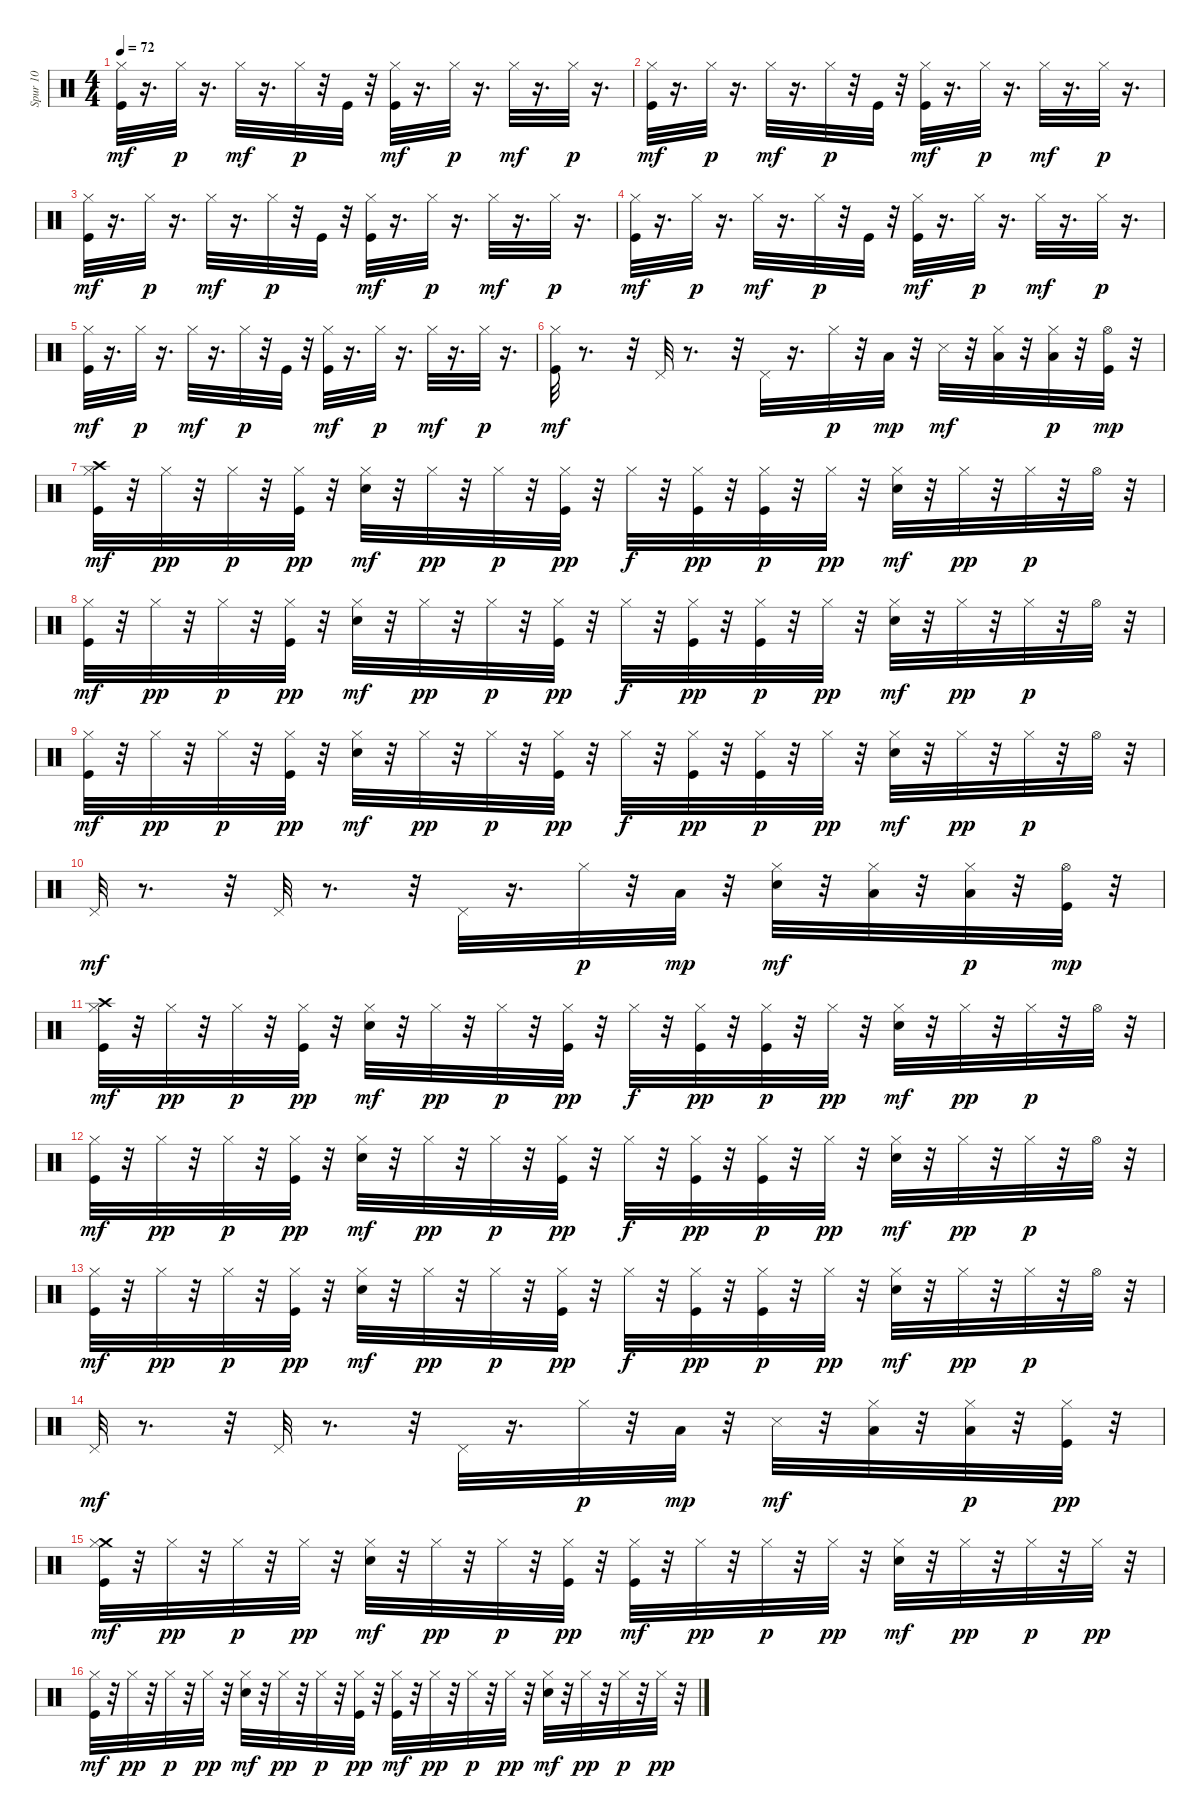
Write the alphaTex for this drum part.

\track ("Spur 10" "Spur 10") {instrument percussion}
\staff {score}
\articulation defaults
\ts (4 4)
\tempo 72
\clef neutral
\ks c
("Kick (hit)" "Hi-Hat (closed)").32{dy mf} r.16{d} "Hi-Hat (closed)".32{dy p} r.16{d} "Hi-Hat (closed)".32{dy mf} r.16{d} "Hi-Hat (closed)".32{dy p} r.32 "Kick (hit)".32 r.32 ("Kick (hit)" "Hi-Hat (closed)").32{dy mf} r.16{d} "Hi-Hat (closed)".32{dy p} r.16{d} "Hi-Hat (closed)".32{dy mf} r.16{d} "Hi-Hat (closed)".32{dy p} r.16{d} |
("Kick (hit)" "Hi-Hat (closed)").32{dy mf} r.16{d} "Hi-Hat (closed)".32{dy p} r.16{d} "Hi-Hat (closed)".32{dy mf} r.16{d} "Hi-Hat (closed)".32{dy p} r.32 "Kick (hit)".32 r.32 ("Kick (hit)" "Hi-Hat (closed)").32{dy mf} r.16{d} "Hi-Hat (closed)".32{dy p} r.16{d} "Hi-Hat (closed)".32{dy mf} r.16{d} "Hi-Hat (closed)".32{dy p} r.16{d} |
("Kick (hit)" "Hi-Hat (closed)").32{dy mf} r.16{d} "Hi-Hat (closed)".32{dy p} r.16{d} "Hi-Hat (closed)".32{dy mf} r.16{d} "Hi-Hat (closed)".32{dy p} r.32 "Kick (hit)".32 r.32 ("Kick (hit)" "Hi-Hat (closed)").32{dy mf} r.16{d} "Hi-Hat (closed)".32{dy p} r.16{d} "Hi-Hat (closed)".32{dy mf} r.16{d} "Hi-Hat (closed)".32{dy p} r.16{d} |
("Kick (hit)" "Hi-Hat (closed)").32{dy mf} r.16{d} "Hi-Hat (closed)".32{dy p} r.16{d} "Hi-Hat (closed)".32{dy mf} r.16{d} "Hi-Hat (closed)".32{dy p} r.32 "Kick (hit)".32 r.32 ("Kick (hit)" "Hi-Hat (closed)").32{dy mf} r.16{d} "Hi-Hat (closed)".32{dy p} r.16{d} "Hi-Hat (closed)".32{dy mf} r.16{d} "Hi-Hat (closed)".32{dy p} r.16{d} |
("Kick (hit)" "Hi-Hat (closed)").32{dy mf} r.16{d} "Hi-Hat (closed)".32{dy p} r.16{d} "Hi-Hat (closed)".32{dy mf} r.16{d} "Hi-Hat (closed)".32{dy p} r.32 "Kick (hit)".32 r.32 ("Kick (hit)" "Hi-Hat (closed)").32{dy mf} r.16{d} "Hi-Hat (closed)".32{dy p} r.16{d} "Hi-Hat (closed)".32{dy mf} r.16{d} "Hi-Hat (closed)".32{dy p} r.16{d} |
("Kick (hit)" "Hi-Hat (closed)").32{dy mf} r.8{d} r.32 "Pedal Hi-Hat (hit)".32 r.8{d} r.32 "Pedal Hi-Hat (hit)".32 r.16{d} "Hi-Hat (closed)".32{dy p} r.32 "Low Tom (hit)".32{dy mp} r.32 "Snare (side stick) 3".32{dy mf} r.32 ("Hi-Hat (closed)" "Low Tom (hit)").32 r.32 ("Hi-Hat (closed)" "Low Tom (hit)").32{dy p} r.32 ("Kick (hit)" "Hi-Hat (open)").32{dy mp} r.32 |
("Crash high (hit)" "Kick (hit)" "Hi-Hat (closed)").32{dy mf} r.32 "Hi-Hat (closed)".32{dy pp} r.32 "Hi-Hat (closed)".32{dy p} r.32 ("Kick (hit)" "Hi-Hat (closed)").32{dy pp} r.32 ("Snare (hit) 2" "Hi-Hat (closed)").32{dy mf} r.32 "Hi-Hat (closed)".32{dy pp} r.32 "Hi-Hat (closed)".32{dy p} r.32 ("Kick (hit)" "Hi-Hat (closed)").32{dy pp} r.32 "Hi-Hat (closed)".32{dy f} r.32 ("Kick (hit)" "Hi-Hat (closed)").32{dy pp} r.32 ("Kick (hit)" "Hi-Hat (closed)").32{dy p} r.32 "Hi-Hat (closed)".32{dy pp} r.32 ("Snare (hit) 2" "Hi-Hat (closed)").32{dy mf} r.32 "Hi-Hat (closed)".32{dy pp} r.32 "Hi-Hat (closed)".32{dy p} r.32 "Hi-Hat (open)".32 r.32 |
("Kick (hit)" "Hi-Hat (closed)").32{dy mf} r.32 "Hi-Hat (closed)".32{dy pp} r.32 "Hi-Hat (closed)".32{dy p} r.32 ("Kick (hit)" "Hi-Hat (closed)").32{dy pp} r.32 ("Snare (hit) 2" "Hi-Hat (closed)").32{dy mf} r.32 "Hi-Hat (closed)".32{dy pp} r.32 "Hi-Hat (closed)".32{dy p} r.32 ("Kick (hit)" "Hi-Hat (closed)").32{dy pp} r.32 "Hi-Hat (closed)".32{dy f} r.32 ("Kick (hit)" "Hi-Hat (closed)").32{dy pp} r.32 ("Kick (hit)" "Hi-Hat (closed)").32{dy p} r.32 "Hi-Hat (closed)".32{dy pp} r.32 ("Snare (hit) 2" "Hi-Hat (closed)").32{dy mf} r.32 "Hi-Hat (closed)".32{dy pp} r.32 "Hi-Hat (closed)".32{dy p} r.32 "Hi-Hat (open)".32 r.32 |
("Kick (hit)" "Hi-Hat (closed)").32{dy mf} r.32 "Hi-Hat (closed)".32{dy pp} r.32 "Hi-Hat (closed)".32{dy p} r.32 ("Kick (hit)" "Hi-Hat (closed)").32{dy pp} r.32 ("Snare (hit) 2" "Hi-Hat (closed)").32{dy mf} r.32 "Hi-Hat (closed)".32{dy pp} r.32 "Hi-Hat (closed)".32{dy p} r.32 ("Kick (hit)" "Hi-Hat (closed)").32{dy pp} r.32 "Hi-Hat (closed)".32{dy f} r.32 ("Kick (hit)" "Hi-Hat (closed)").32{dy pp} r.32 ("Kick (hit)" "Hi-Hat (closed)").32{dy p} r.32 "Hi-Hat (closed)".32{dy pp} r.32 ("Snare (hit) 2" "Hi-Hat (closed)").32{dy mf} r.32 "Hi-Hat (closed)".32{dy pp} r.32 "Hi-Hat (closed)".32{dy p} r.32 "Hi-Hat (open)".32 r.32 |
"Pedal Hi-Hat (hit)".32{dy mf} r.8{d} r.32 "Pedal Hi-Hat (hit)".32 r.8{d} r.32 "Pedal Hi-Hat (hit)".32 r.16{d} "Hi-Hat (closed)".32{dy p} r.32 "Low Tom (hit)".32{dy mp} r.32 ("Snare (hit) 2" "Hi-Hat (closed)").32{dy mf} r.32 ("Hi-Hat (closed)" "Low Tom (hit)").32 r.32 ("Hi-Hat (closed)" "Low Tom (hit)").32{dy p} r.32 ("Kick (hit)" "Hi-Hat (open)").32{dy mp} r.32 |
("Crash high (hit)" "Kick (hit)" "Hi-Hat (closed)").32{dy mf} r.32 "Hi-Hat (closed)".32{dy pp} r.32 "Hi-Hat (closed)".32{dy p} r.32 ("Kick (hit)" "Hi-Hat (closed)").32{dy pp} r.32 ("Snare (hit) 2" "Hi-Hat (closed)").32{dy mf} r.32 "Hi-Hat (closed)".32{dy pp} r.32 "Hi-Hat (closed)".32{dy p} r.32 ("Kick (hit)" "Hi-Hat (closed)").32{dy pp} r.32 "Hi-Hat (closed)".32{dy f} r.32 ("Kick (hit)" "Hi-Hat (closed)").32{dy pp} r.32 ("Kick (hit)" "Hi-Hat (closed)").32{dy p} r.32 "Hi-Hat (closed)".32{dy pp} r.32 ("Snare (hit) 2" "Hi-Hat (closed)").32{dy mf} r.32 "Hi-Hat (closed)".32{dy pp} r.32 "Hi-Hat (closed)".32{dy p} r.32 "Hi-Hat (open)".32 r.32 |
("Kick (hit)" "Hi-Hat (closed)").32{dy mf} r.32 "Hi-Hat (closed)".32{dy pp} r.32 "Hi-Hat (closed)".32{dy p} r.32 ("Kick (hit)" "Hi-Hat (closed)").32{dy pp} r.32 ("Snare (hit) 2" "Hi-Hat (closed)").32{dy mf} r.32 "Hi-Hat (closed)".32{dy pp} r.32 "Hi-Hat (closed)".32{dy p} r.32 ("Kick (hit)" "Hi-Hat (closed)").32{dy pp} r.32 "Hi-Hat (closed)".32{dy f} r.32 ("Kick (hit)" "Hi-Hat (closed)").32{dy pp} r.32 ("Kick (hit)" "Hi-Hat (closed)").32{dy p} r.32 "Hi-Hat (closed)".32{dy pp} r.32 ("Snare (hit) 2" "Hi-Hat (closed)").32{dy mf} r.32 "Hi-Hat (closed)".32{dy pp} r.32 "Hi-Hat (closed)".32{dy p} r.32 "Hi-Hat (open)".32 r.32 |
("Kick (hit)" "Hi-Hat (closed)").32{dy mf} r.32 "Hi-Hat (closed)".32{dy pp} r.32 "Hi-Hat (closed)".32{dy p} r.32 ("Kick (hit)" "Hi-Hat (closed)").32{dy pp} r.32 ("Snare (hit) 2" "Hi-Hat (closed)").32{dy mf} r.32 "Hi-Hat (closed)".32{dy pp} r.32 "Hi-Hat (closed)".32{dy p} r.32 ("Kick (hit)" "Hi-Hat (closed)").32{dy pp} r.32 "Hi-Hat (closed)".32{dy f} r.32 ("Kick (hit)" "Hi-Hat (closed)").32{dy pp} r.32 ("Kick (hit)" "Hi-Hat (closed)").32{dy p} r.32 "Hi-Hat (closed)".32{dy pp} r.32 ("Snare (hit) 2" "Hi-Hat (closed)").32{dy mf} r.32 "Hi-Hat (closed)".32{dy pp} r.32 "Hi-Hat (closed)".32{dy p} r.32 "Hi-Hat (open)".32 r.32 |
"Pedal Hi-Hat (hit)".32{dy mf} r.8{d} r.32 "Pedal Hi-Hat (hit)".32 r.8{d} r.32 "Pedal Hi-Hat (hit)".32 r.16{d} "Hi-Hat (closed)".32{dy p} r.32 "Low Tom (hit)".32{dy mp} r.32 "Snare (side stick) 3".32{dy mf} r.32 ("Hi-Hat (closed)" "Low Tom (hit)").32 r.32 ("Hi-Hat (closed)" "Low Tom (hit)").32{dy p} r.32 ("Kick (hit)" "Hi-Hat (closed)").32{dy pp} r.32 |
("Crash medium (hit)" "Kick (hit)" "Hi-Hat (closed)").32{dy mf} r.32 "Hi-Hat (closed)".32{dy pp} r.32 "Hi-Hat (closed)".32{dy p} r.32 "Hi-Hat (closed)".32{dy pp} r.32 ("Snare (hit) 2" "Hi-Hat (closed)").32{dy mf} r.32 "Hi-Hat (closed)".32{dy pp} r.32 "Hi-Hat (closed)".32{dy p} r.32 ("Kick (hit)" "Hi-Hat (closed)").32{dy pp} r.32 ("Kick (hit)" "Hi-Hat (closed)").32{dy mf} r.32 "Hi-Hat (closed)".32{dy pp} r.32 "Hi-Hat (closed)".32{dy p} r.32 "Hi-Hat (closed)".32{dy pp} r.32 ("Snare (hit) 2" "Hi-Hat (closed)").32{dy mf} r.32 "Hi-Hat (closed)".32{dy pp} r.32 "Hi-Hat (closed)".32{dy p} r.32 "Hi-Hat (closed)".32{dy pp} r.32 |
("Kick (hit)" "Hi-Hat (closed)").32{dy mf} r.32 "Hi-Hat (closed)".32{dy pp} r.32 "Hi-Hat (closed)".32{dy p} r.32 "Hi-Hat (closed)".32{dy pp} r.32 ("Snare (hit) 2" "Hi-Hat (closed)").32{dy mf} r.32 "Hi-Hat (closed)".32{dy pp} r.32 "Hi-Hat (closed)".32{dy p} r.32 ("Kick (hit)" "Hi-Hat (closed)").32{dy pp} r.32 ("Kick (hit)" "Hi-Hat (closed)").32{dy mf} r.32 "Hi-Hat (closed)".32{dy pp} r.32 "Hi-Hat (closed)".32{dy p} r.32 "Hi-Hat (closed)".32{dy pp} r.32 ("Snare (hit) 2" "Hi-Hat (closed)").32{dy mf} r.32 "Hi-Hat (closed)".32{dy pp} r.32 "Hi-Hat (closed)".32{dy p} r.32 "Hi-Hat (closed)".32{dy pp} r.32
